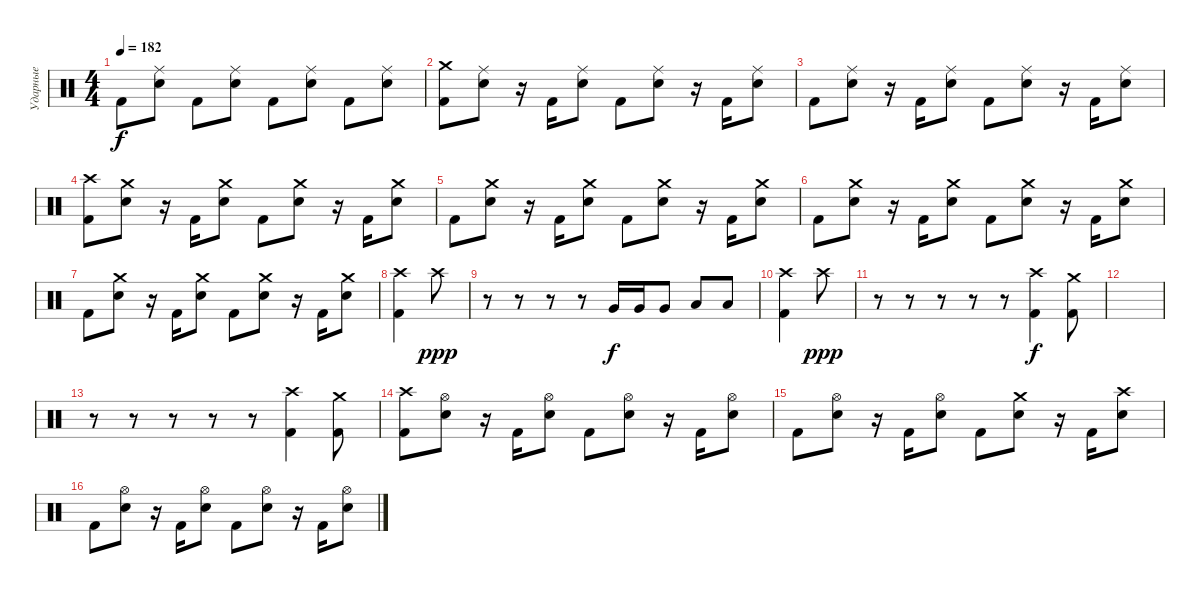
\track ("Ударные" "Ударные") {instrument percussion}
\staff {score}
\articulation defaults
\ts (4 4)
\tempo 182
\clef neutral
\ks c "Kick (hit) 2".8{dy f}
("Ride (middle)" "Electric Snare (hit)").8 "Kick (hit) 2".8 ("Ride (middle)" "Electric Snare (hit)").8 "Kick (hit) 2".8 ("Ride (middle)" "Electric Snare (hit)").8 "Kick (hit) 2".8 ("Ride (middle)" "Electric Snare (hit)").8 |
("Crash medium (hit)" "Kick (hit) 2").8 ("Ride (middle)" "Electric Snare (hit)").8 r.16 "Kick (hit) 2".16 ("Ride (middle)" "Electric Snare (hit)").8 "Kick (hit) 2".8 ("Ride (middle)" "Electric Snare (hit)").8 r.16 "Kick (hit) 2".16 ("Ride (middle)" "Electric Snare (hit)").8 |
"Kick (hit) 2".8 ("Ride (middle)" "Electric Snare (hit)").8 r.16 "Kick (hit) 2".16 ("Ride (middle)" "Electric Snare (hit)").8 "Kick (hit) 2".8 ("Ride (middle)" "Electric Snare (hit)").8 r.16 "Kick (hit) 2".16 ("Ride (middle)" "Electric Snare (hit)").8 |
("Crash high (hit)" "Kick (hit) 2").8 ("Crash medium (hit)" "Electric Snare (hit)").8 r.16 "Kick (hit) 2".16 ("Crash medium (hit)" "Electric Snare (hit)").8 "Kick (hit) 2".8 ("Crash medium (hit)" "Electric Snare (hit)").8 r.16 "Kick (hit) 2".16 ("Crash medium (hit)" "Electric Snare (hit)").8 |
"Kick (hit) 2".8 ("Crash medium (hit)" "Electric Snare (hit)").8 r.16 "Kick (hit) 2".16 ("Crash medium (hit)" "Electric Snare (hit)").8 "Kick (hit) 2".8 ("Crash medium (hit)" "Electric Snare (hit)").8 r.16 "Kick (hit) 2".16 ("Crash medium (hit)" "Electric Snare (hit)").8 |
"Kick (hit) 2".8 ("Crash medium (hit)" "Electric Snare (hit)").8 r.16 "Kick (hit) 2".16 ("Crash medium (hit)" "Electric Snare (hit)").8 "Kick (hit) 2".8 ("Crash medium (hit)" "Electric Snare (hit)").8 r.16 "Kick (hit) 2".16 ("Crash medium (hit)" "Electric Snare (hit)").8 |
"Kick (hit) 2".8 ("Crash medium (hit)" "Electric Snare (hit)").8 r.16 "Kick (hit) 2".16 ("Crash medium (hit)" "Electric Snare (hit)").8 "Kick (hit) 2".8 ("Crash medium (hit)" "Electric Snare (hit)").8 r.16 "Kick (hit) 2".16 ("Crash medium (hit)" "Electric Snare (hit)").8 |
("Crash high (hit)" "Kick (hit) 2").4 "Crash high (hit)".8{dy ppp} |
r.8 r.8 r.8 r.8 "Very Low Tom (hit)".16{dy f} "Very Low Tom (hit)".16 "Very Low Tom (hit)".8 "Low Tom (hit)".8 "Low Floor Tom (hit)".8 |
("Crash high (hit)" "Kick (hit) 2").4 "Crash high (hit)".8{dy ppp} |
r.8 r.8 r.8 r.8 r.8 ("Crash high (hit)" "Kick (hit) 2").4{dy f} ("Crash medium (hit)" "Kick (hit) 2").8 |
|
r.8 r.8 r.8 r.8 r.8 ("Crash high (hit)" "Kick (hit) 2").4 ("Crash medium (hit)" "Kick (hit) 2").8 |
("Crash high (hit)" "Kick (hit) 2").8 ("Hi-Hat (open)" "Electric Snare (hit)").8 r.16 "Kick (hit) 2".16 ("Hi-Hat (open)" "Electric Snare (hit)").8 "Kick (hit) 2".8 ("Hi-Hat (open)" "Electric Snare (hit)").8 r.16 "Kick (hit) 2".16 ("Hi-Hat (open)" "Electric Snare (hit)").8 |
"Kick (hit) 2".8 ("Hi-Hat (open)" "Electric Snare (hit)").8 r.16 "Kick (hit) 2".16 ("Hi-Hat (open)" "Electric Snare (hit)").8 "Kick (hit) 2".8 ("Crash medium (hit)" "Electric Snare (hit)").8 r.16 "Kick (hit) 2".16 ("Crash high (hit)" "Electric Snare (hit)").8 |
"Kick (hit) 2".8 ("Hi-Hat (open)" "Electric Snare (hit)").8 r.16 "Kick (hit) 2".16 ("Hi-Hat (open)" "Electric Snare (hit)").8 "Kick (hit) 2".8 ("Hi-Hat (open)" "Electric Snare (hit)").8 r.16 "Kick (hit) 2".16 ("Hi-Hat (open)" "Electric Snare (hit)").8
